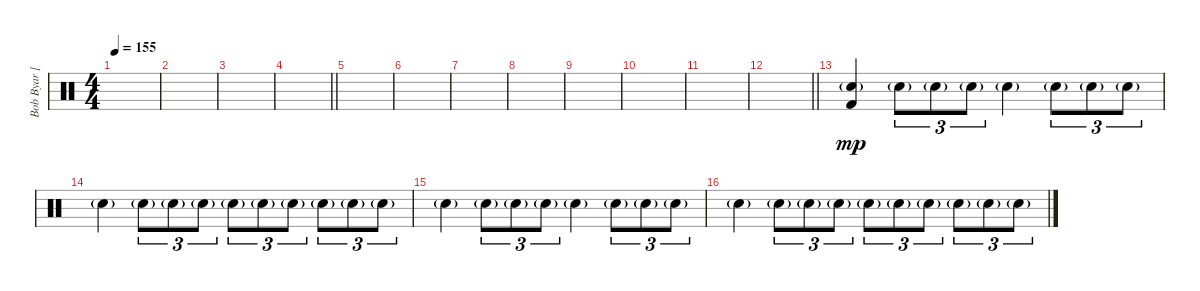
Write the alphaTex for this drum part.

\track ("Bob Byar [Drums]" "Bob Byar [") {instrument percussion}
\staff {score}
\articulation defaults
\ts (4 4)
\tempo 155
\clef neutral
\ks c
|
|
|
\barLineRight lightlight
|
|
|
|
|
|
|
|
\barLineRight lightlight
|
("Snare (hit) 2"{g} "Kick (hit) 2").4{dy mp} "Snare (hit) 2"{g}.8{tu (3 2)} "Snare (hit) 2"{g}.8{tu (3 2)} "Snare (hit) 2"{g}.8{tu (3 2)} "Snare (hit) 2"{g}.4 "Snare (hit) 2"{g}.8{tu (3 2)} "Snare (hit) 2"{g}.8{tu (3 2)} "Snare (hit) 2"{g}.8{tu (3 2)} |
"Snare (hit) 2"{g}.4 "Snare (hit) 2"{g}.8{tu (3 2)} "Snare (hit) 2"{g}.8{tu (3 2)} "Snare (hit) 2"{g}.8{tu (3 2)} "Snare (hit) 2"{g}.8{tu (3 2)} "Snare (hit) 2"{g}.8{tu (3 2)} "Snare (hit) 2"{g}.8{tu (3 2)} "Snare (hit) 2"{g}.8{tu (3 2)} "Snare (hit) 2"{g}.8{tu (3 2)} "Snare (hit) 2"{g}.8{tu (3 2)} |
"Snare (hit) 2"{g}.4 "Snare (hit) 2"{g}.8{tu (3 2)} "Snare (hit) 2"{g}.8{tu (3 2)} "Snare (hit) 2"{g}.8{tu (3 2)} "Snare (hit) 2"{g}.4 "Snare (hit) 2"{g}.8{tu (3 2)} "Snare (hit) 2"{g}.8{tu (3 2)} "Snare (hit) 2"{g}.8{tu (3 2)} |
"Snare (hit) 2"{g}.4 "Snare (hit) 2"{g}.8{tu (3 2)} "Snare (hit) 2"{g}.8{tu (3 2)} "Snare (hit) 2"{g}.8{tu (3 2)} "Snare (hit) 2"{g}.8{tu (3 2)} "Snare (hit) 2"{g}.8{tu (3 2)} "Snare (hit) 2"{g}.8{tu (3 2)} "Snare (hit) 2"{g}.8{tu (3 2)} "Snare (hit) 2"{g}.8{tu (3 2)} "Snare (hit) 2"{g}.8{tu (3 2)}
